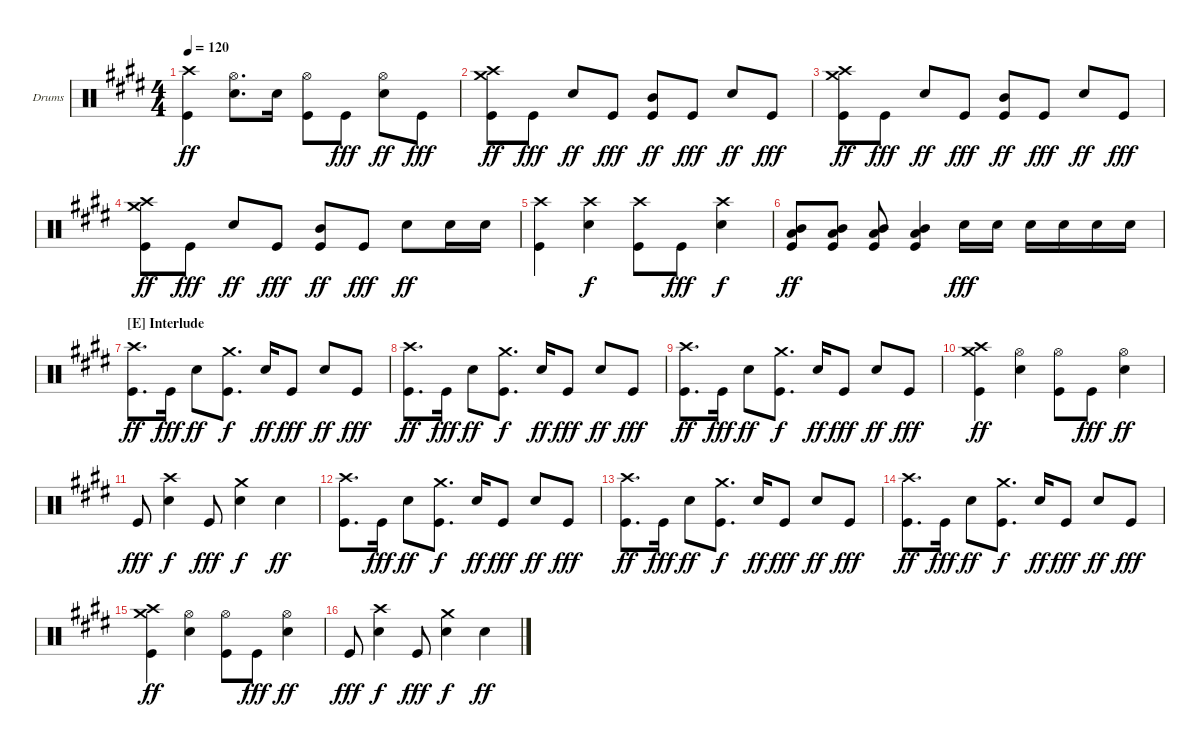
\defaultSystemsLayout 4
\bracketExtendMode groupsimilarinstruments
\firstSystemTrackNameOrientation horizontal
\otherSystemsTrackNameOrientation horizontal
\track ("Drums" "Drums") {instrument percussion}
\staff {score}
\articulation defaults
\ts (4 4)
\tempo 120
\clef neutral
\scale
1.06557
\ks e
("Crash high (hit)" "Kick (hit)").4{dy ff} ("Hi-Hat (open)" "Snare (hit) 2").8{d} "Snare (hit) 2".16 ("Hi-Hat (open)" "Kick (hit)").8 "Kick (hit)".8{dy fff} ("Hi-Hat (open)" "Snare (hit) 2").8{dy ff} "Kick (hit)".8{dy fff} |
\scale
0.934426 ("Crash medium (hit)" "Crash high (hit)" "Kick (hit)").8{dy ff} "Kick (hit)".8{dy fff} "Snare (hit) 2".8{dy ff} "Kick (hit)".8{dy fff} ("Mid Tom (hit)" "Kick (hit)").8{dy ff} "Kick (hit)".8{dy fff} "Snare (hit) 2".8{dy ff} "Kick (hit)".8{dy fff} |
\scale
1.06557 ("Crash medium (hit)" "Crash high (hit)" "Kick (hit)").8{dy ff} "Kick (hit)".8{dy fff} "Snare (hit) 2".8{dy ff} "Kick (hit)".8{dy fff} ("Mid Tom (hit)" "Kick (hit)").8{dy ff} "Kick (hit)".8{dy fff} "Snare (hit) 2".8{dy ff} "Kick (hit)".8{dy fff} |
\scale
0.934426 ("Crash medium (hit)" "Crash high (hit)" "Kick (hit)").8{dy ff} "Kick (hit)".8{dy fff} "Snare (hit) 2".8{dy ff} "Kick (hit)".8{dy fff} ("Mid Tom (hit)" "Kick (hit)").8{dy ff} "Kick (hit)".8{dy fff} "Snare (hit) 2".8{dy ff} "Snare (hit) 2".16 "Snare (hit) 2".16 |
\scale
1.06557 ("Crash high (hit)" "Kick (hit)").4 ("Crash high (hit)" "Snare (hit) 2").4{dy f} ("Crash high (hit)" "Kick (hit)").8 "Kick (hit)".8{dy fff} ("Crash high (hit)" "Snare (hit) 2").4{dy f} |
\scale
0.934426 ("Mid Tom (hit)" "Low Tom (hit)" "Kick (hit)").8{dy ff} ("Mid Tom (hit)" "Low Tom (hit)" "Kick (hit)").8 ("Mid Tom (hit)" "Low Tom (hit)" "Kick (hit)").8 ("Mid Tom (hit)" "Low Tom (hit)" "Kick (hit)").4 "Snare (hit) 2".16{dy fff} "Snare (hit) 2".16 "Snare (hit) 2".16 "Snare (hit) 2".16 "Snare (hit) 2".16 "Snare (hit) 2".16 |
\section ("E" "Interlude")
\scale
1.06557 ("Crash high (hit)" "Kick (hit)").8{d dy ff} "Kick (hit)".16{dy fff} "Snare (hit) 2".8{dy ff} ("Crash medium (hit)" "Kick (hit)").8{d dy f} "Snare (hit) 2".16{dy ff} "Kick (hit)".8{dy fff} "Snare (hit) 2".8{dy ff} "Kick (hit)".8{dy fff} |
\scale
0.934426 ("Crash high (hit)" "Kick (hit)").8{d dy ff} "Kick (hit)".16{dy fff} "Snare (hit) 2".8{dy ff} ("Crash medium (hit)" "Kick (hit)").8{d dy f} "Snare (hit) 2".16{dy ff} "Kick (hit)".8{dy fff} "Snare (hit) 2".8{dy ff} "Kick (hit)".8{dy fff} |
\scale
1.06557 ("Crash high (hit)" "Kick (hit)").8{d dy ff} "Kick (hit)".16{dy fff} "Snare (hit) 2".8{dy ff} ("Crash medium (hit)" "Kick (hit)").8{d dy f} "Snare (hit) 2".16{dy ff} "Kick (hit)".8{dy fff} "Snare (hit) 2".8{dy ff} "Kick (hit)".8{dy fff} |
\scale
0.934426 ("Crash medium (hit)" "Crash high (hit)" "Kick (hit)").4{dy ff} ("Hi-Hat (open)" "Snare (hit) 2").4 ("Hi-Hat (open)" "Kick (hit)").8 "Kick (hit)".8{dy fff} ("Hi-Hat (open)" "Snare (hit) 2").4{dy ff} |
\scale
1.06557 "Kick (hit)".8{dy fff} ("Crash high (hit)" "Snare (hit) 2").4{dy f} "Kick (hit)".8{dy fff} ("Crash medium (hit)" "Snare (hit) 2").4{dy f} "Snare (hit) 2".4{dy ff} |
\scale
0.934426 ("Crash high (hit)" "Kick (hit)").8{d} "Kick (hit)".16{dy fff} "Snare (hit) 2".8{dy ff} ("Crash medium (hit)" "Kick (hit)").8{d dy f} "Snare (hit) 2".16{dy ff} "Kick (hit)".8{dy fff} "Snare (hit) 2".8{dy ff} "Kick (hit)".8{dy fff} |
\scale
1.06557 ("Crash high (hit)" "Kick (hit)").8{d dy ff} "Kick (hit)".16{dy fff} "Snare (hit) 2".8{dy ff} ("Crash medium (hit)" "Kick (hit)").8{d dy f} "Snare (hit) 2".16{dy ff} "Kick (hit)".8{dy fff} "Snare (hit) 2".8{dy ff} "Kick (hit)".8{dy fff} |
\scale
0.934426 ("Crash high (hit)" "Kick (hit)").8{d dy ff} "Kick (hit)".16{dy fff} "Snare (hit) 2".8{dy ff} ("Crash medium (hit)" "Kick (hit)").8{d dy f} "Snare (hit) 2".16{dy ff} "Kick (hit)".8{dy fff} "Snare (hit) 2".8{dy ff} "Kick (hit)".8{dy fff} |
\scale
1.06557 ("Crash medium (hit)" "Crash high (hit)" "Kick (hit)").4{dy ff} ("Hi-Hat (open)" "Snare (hit) 2").4 ("Hi-Hat (open)" "Kick (hit)").8 "Kick (hit)".8{dy fff} ("Hi-Hat (open)" "Snare (hit) 2").4{dy ff} |
\scale
0.934426 "Kick (hit)".8{dy fff} ("Crash high (hit)" "Snare (hit) 2").4{dy f} "Kick (hit)".8{dy fff} ("Crash medium (hit)" "Snare (hit) 2").4{dy f} "Snare (hit) 2".4{dy ff}
